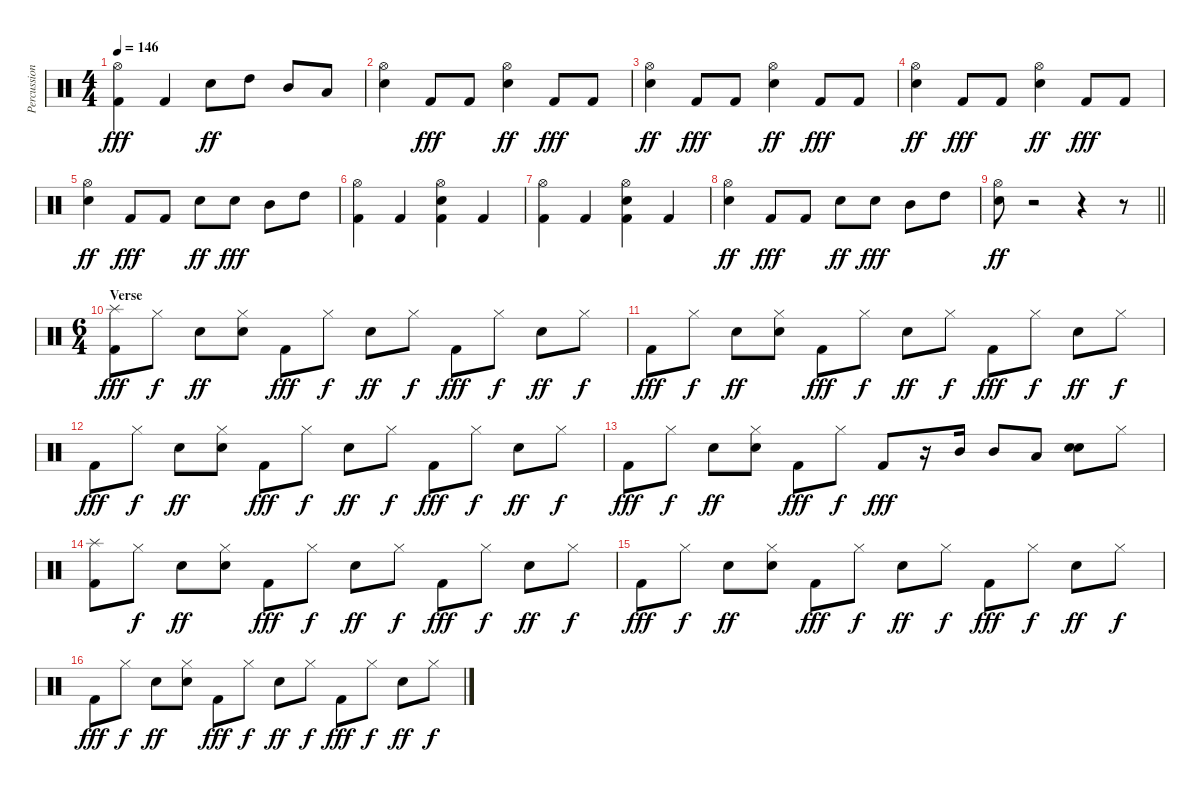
\track ("Percussions" "Percussion") {instrument percussion}
\staff {score}
\articulation defaults
\ts (4 4)
\tempo 146
\clef neutral
\ks c
("Hi-Hat (open)" "Kick (hit) 2").4{dy fff} "Kick (hit) 2".4 "Snare (hit) 2".8{dy ff} "High Tom (hit)".8 "Mid Tom (hit)".8 "Low Tom (hit)".8 |
("Hi-Hat (open)" "Snare (hit) 2").4 "Kick (hit) 2".8{dy fff} "Kick (hit) 2".8 ("Hi-Hat (open)" "Snare (hit) 2").4{dy ff} "Kick (hit) 2".8{dy fff} "Kick (hit) 2".8 |
("Hi-Hat (open)" "Snare (hit) 2").4{dy ff} "Kick (hit) 2".8{dy fff} "Kick (hit) 2".8 ("Hi-Hat (open)" "Snare (hit) 2").4{dy ff} "Kick (hit) 2".8{dy fff} "Kick (hit) 2".8 |
("Hi-Hat (open)" "Snare (hit) 2").4{dy ff} "Kick (hit) 2".8{dy fff} "Kick (hit) 2".8 ("Hi-Hat (open)" "Snare (hit) 2").4{dy ff} "Kick (hit) 2".8{dy fff} "Kick (hit) 2".8 |
("Hi-Hat (open)" "Snare (hit) 2").4{dy ff} "Kick (hit) 2".8{dy fff} "Kick (hit) 2".8 "Snare (hit) 2".8{dy ff} "Snare (hit) 2".8{dy fff} "Mid Tom (hit)".8 "High Tom (hit)".8 |
("Hi-Hat (open)" "Kick (hit) 2").4 "Kick (hit) 2".4 ("Hi-Hat (open)" "Snare (hit) 2" "Kick (hit) 2").4 "Kick (hit) 2".4 |
("Hi-Hat (open)" "Kick (hit) 2").4 "Kick (hit) 2".4 ("Hi-Hat (open)" "Snare (hit) 2" "Kick (hit) 2").4 "Kick (hit) 2".4 |
("Hi-Hat (open)" "Snare (hit) 2").4{dy ff} "Kick (hit) 2".8{dy fff} "Kick (hit) 2".8 "Snare (hit) 2".8{dy ff} "Snare (hit) 2".8{dy fff} "Mid Tom (hit)".8 "High Tom (hit)".8 |
\barLineRight lightlight
("Hi-Hat (open)" "Snare (hit) 2").8{dy ff} r.2 r.4 r.8 |
\ts (6 4)
\section ("" "Verse")
("Splash (hit)" "Kick (hit) 2").8{dy fff} "Hi-Hat (closed)".8{dy f} "Snare (hit) 2".8{dy ff} ("Hi-Hat (closed)" "Snare (hit) 2").8 "Kick (hit) 2".8{dy fff} "Hi-Hat (closed)".8{dy f} "Snare (hit) 2".8{dy ff} "Hi-Hat (closed)".8{dy f} "Kick (hit) 2".8{dy fff} "Hi-Hat (closed)".8{dy f} "Snare (hit) 2".8{dy ff} "Hi-Hat (closed)".8{dy f} |
"Kick (hit) 2".8{dy fff} "Hi-Hat (closed)".8{dy f} "Snare (hit) 2".8{dy ff} ("Hi-Hat (closed)" "Snare (hit) 2").8 "Kick (hit) 2".8{dy fff} "Hi-Hat (closed)".8{dy f} "Snare (hit) 2".8{dy ff} "Hi-Hat (closed)".8{dy f} "Kick (hit) 2".8{dy fff} "Hi-Hat (closed)".8{dy f} "Snare (hit) 2".8{dy ff} "Hi-Hat (closed)".8{dy f} |
"Kick (hit) 2".8{dy fff} "Hi-Hat (closed)".8{dy f} "Snare (hit) 2".8{dy ff} ("Hi-Hat (closed)" "Snare (hit) 2").8 "Kick (hit) 2".8{dy fff} "Hi-Hat (closed)".8{dy f} "Snare (hit) 2".8{dy ff} "Hi-Hat (closed)".8{dy f} "Kick (hit) 2".8{dy fff} "Hi-Hat (closed)".8{dy f} "Snare (hit) 2".8{dy ff} "Hi-Hat (closed)".8{dy f} |
"Kick (hit) 2".8{dy fff} "Hi-Hat (closed)".8{dy f} "Snare (hit) 2".8{dy ff} ("Hi-Hat (closed)" "Snare (hit) 2").8 "Kick (hit) 2".8{dy fff} "Hi-Hat (closed)".8{dy f} "Kick (hit) 2".8{dy fff} r.16 "Mid Tom (hit)".16 "Mid Tom (hit)".8 "Low Tom (hit)".8 ("Snare (hit) 2" "Snare (hit) 2").8{bd 480} "Hi-Hat (closed)".8 |
("Splash (hit)" "Kick (hit) 2").8 "Hi-Hat (closed)".8{dy f} "Snare (hit) 2".8{dy ff} ("Hi-Hat (closed)" "Snare (hit) 2").8 "Kick (hit) 2".8{dy fff} "Hi-Hat (closed)".8{dy f} "Snare (hit) 2".8{dy ff} "Hi-Hat (closed)".8{dy f} "Kick (hit) 2".8{dy fff} "Hi-Hat (closed)".8{dy f} "Snare (hit) 2".8{dy ff} "Hi-Hat (closed)".8{dy f} |
"Kick (hit) 2".8{dy fff} "Hi-Hat (closed)".8{dy f} "Snare (hit) 2".8{dy ff} ("Hi-Hat (closed)" "Snare (hit) 2").8 "Kick (hit) 2".8{dy fff} "Hi-Hat (closed)".8{dy f} "Snare (hit) 2".8{dy ff} "Hi-Hat (closed)".8{dy f} "Kick (hit) 2".8{dy fff} "Hi-Hat (closed)".8{dy f} "Snare (hit) 2".8{dy ff} "Hi-Hat (closed)".8{dy f} |
"Kick (hit) 2".8{dy fff} "Hi-Hat (closed)".8{dy f} "Snare (hit) 2".8{dy ff} ("Hi-Hat (closed)" "Snare (hit) 2").8 "Kick (hit) 2".8{dy fff} "Hi-Hat (closed)".8{dy f} "Snare (hit) 2".8{dy ff} "Hi-Hat (closed)".8{dy f} "Kick (hit) 2".8{dy fff} "Hi-Hat (closed)".8{dy f} "Snare (hit) 2".8{dy ff} "Hi-Hat (closed)".8{dy f}
